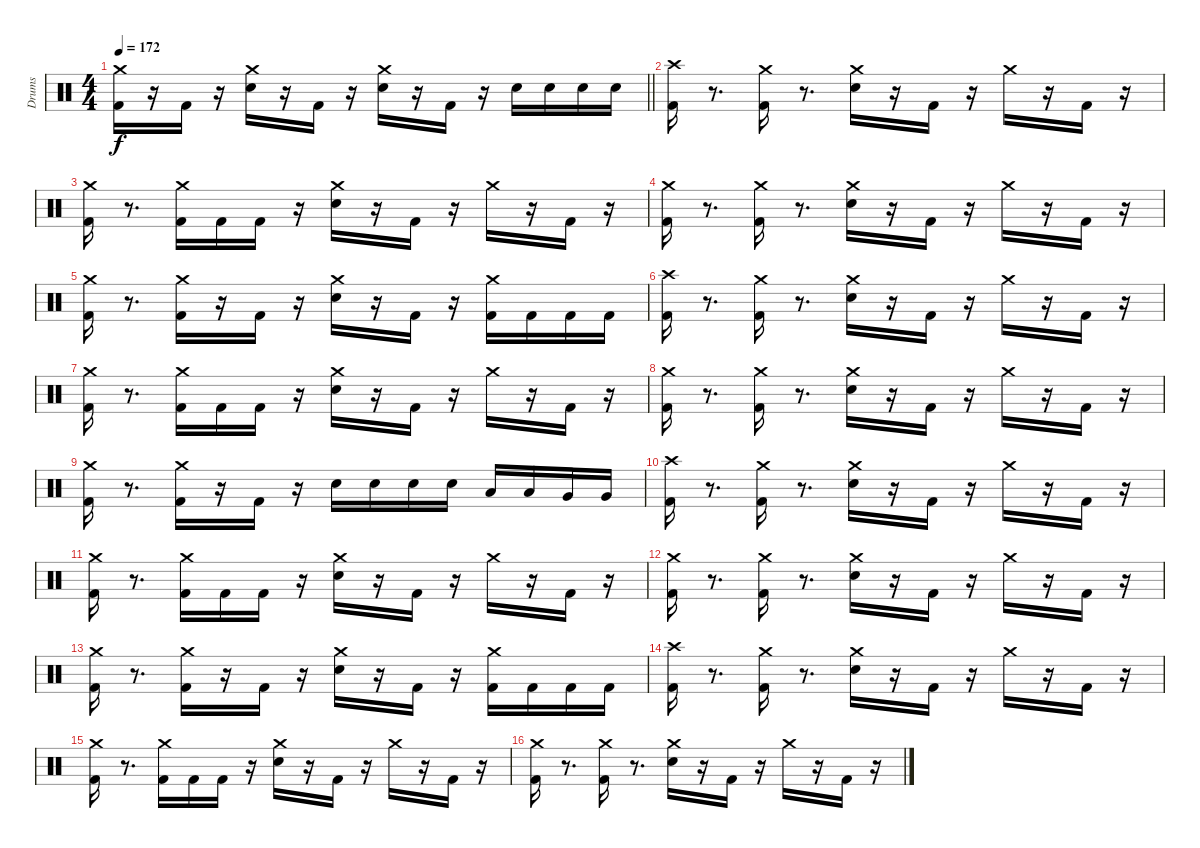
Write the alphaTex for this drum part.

\track ("Drums" "Drums") {instrument percussion}
\staff {score}
\articulation defaults
\ts (4 4)
\tempo 172
\clef neutral
\barLineRight lightlight
\ks c
("Kick (hit) 2" "Crash medium (hit)").16{dy f} r.16 "Kick (hit) 2".16 r.16 ("Snare (hit) 2" "Crash medium (hit)").16 r.16 "Kick (hit) 2".16 r.16 ("Snare (hit) 2" "Crash medium (hit)").16 r.16 "Kick (hit) 2".16 r.16 "Snare (hit) 2".16 "Snare (hit) 2".16 "Snare (hit) 2".16 "Snare (hit) 2".16 |
\section ("" " ")
("Kick (hit) 2" "Crash high (hit)").16 r.8{d} ("Kick (hit) 2" "Crash medium (hit)").16 r.8{d} ("Snare (hit) 2" "Crash medium (hit)").16 r.16 "Kick (hit) 2".16 r.16 "Crash medium (hit)".16 r.16 "Kick (hit) 2".16 r.16 |
("Kick (hit) 2" "Crash medium (hit)").16 r.8{d} ("Kick (hit) 2" "Crash medium (hit)").16 "Kick (hit) 2".16 "Kick (hit) 2".16 r.16 ("Snare (hit) 2" "Crash medium (hit)").16 r.16 "Kick (hit) 2".16 r.16 "Crash medium (hit)".16 r.16 "Kick (hit) 2".16 r.16 |
("Kick (hit) 2" "Crash medium (hit)").16 r.8{d} ("Kick (hit) 2" "Crash medium (hit)").16 r.8{d} ("Snare (hit) 2" "Crash medium (hit)").16 r.16 "Kick (hit) 2".16 r.16 "Crash medium (hit)".16 r.16 "Kick (hit) 2".16 r.16 |
("Kick (hit) 2" "Crash medium (hit)").16 r.8{d} ("Kick (hit) 2" "Crash medium (hit)").16 r.16 "Kick (hit) 2".16 r.16 ("Snare (hit) 2" "Crash medium (hit)").16 r.16 "Kick (hit) 2".16 r.16 ("Kick (hit) 2" "Crash medium (hit)").16 "Kick (hit) 2".16 "Kick (hit) 2".16 "Kick (hit) 2".16 |
("Kick (hit) 2" "Crash high (hit)").16 r.8{d} ("Kick (hit) 2" "Crash medium (hit)").16 r.8{d} ("Snare (hit) 2" "Crash medium (hit)").16 r.16 "Kick (hit) 2".16 r.16 "Crash medium (hit)".16 r.16 "Kick (hit) 2".16 r.16 |
("Kick (hit) 2" "Crash medium (hit)").16 r.8{d} ("Kick (hit) 2" "Crash medium (hit)").16 "Kick (hit) 2".16 "Kick (hit) 2".16 r.16 ("Snare (hit) 2" "Crash medium (hit)").16 r.16 "Kick (hit) 2".16 r.16 "Crash medium (hit)".16 r.16 "Kick (hit) 2".16 r.16 |
("Kick (hit) 2" "Crash medium (hit)").16 r.8{d} ("Kick (hit) 2" "Crash medium (hit)").16 r.8{d} ("Snare (hit) 2" "Crash medium (hit)").16 r.16 "Kick (hit) 2".16 r.16 "Crash medium (hit)".16 r.16 "Kick (hit) 2".16 r.16 |
("Kick (hit) 2" "Crash medium (hit)").16 r.8{d} ("Kick (hit) 2" "Crash medium (hit)").16 r.16 "Kick (hit) 2".16 r.16 "Snare (hit) 2".16 "Snare (hit) 2".16 "Snare (hit) 2".16 "Snare (hit) 2".16 "Low Tom (hit)".16 "Low Tom (hit)".16 "Very Low Tom (hit)".16 "Very Low Tom (hit)".16 |
("Kick (hit) 2" "Crash high (hit)").16 r.8{d} ("Kick (hit) 2" "Crash medium (hit)").16 r.8{d} ("Snare (hit) 2" "Crash medium (hit)").16 r.16 "Kick (hit) 2".16 r.16 "Crash medium (hit)".16 r.16 "Kick (hit) 2".16 r.16 |
("Kick (hit) 2" "Crash medium (hit)").16 r.8{d} ("Kick (hit) 2" "Crash medium (hit)").16 "Kick (hit) 2".16 "Kick (hit) 2".16 r.16 ("Snare (hit) 2" "Crash medium (hit)").16 r.16 "Kick (hit) 2".16 r.16 "Crash medium (hit)".16 r.16 "Kick (hit) 2".16 r.16 |
("Kick (hit) 2" "Crash medium (hit)").16 r.8{d} ("Kick (hit) 2" "Crash medium (hit)").16 r.8{d} ("Snare (hit) 2" "Crash medium (hit)").16 r.16 "Kick (hit) 2".16 r.16 "Crash medium (hit)".16 r.16 "Kick (hit) 2".16 r.16 |
("Kick (hit) 2" "Crash medium (hit)").16 r.8{d} ("Kick (hit) 2" "Crash medium (hit)").16 r.16 "Kick (hit) 2".16 r.16 ("Snare (hit) 2" "Crash medium (hit)").16 r.16 "Kick (hit) 2".16 r.16 ("Kick (hit) 2" "Crash medium (hit)").16 "Kick (hit) 2".16 "Kick (hit) 2".16 "Kick (hit) 2".16 |
("Kick (hit) 2" "Crash high (hit)").16 r.8{d} ("Kick (hit) 2" "Crash medium (hit)").16 r.8{d} ("Snare (hit) 2" "Crash medium (hit)").16 r.16 "Kick (hit) 2".16 r.16 "Crash medium (hit)".16 r.16 "Kick (hit) 2".16 r.16 |
("Kick (hit) 2" "Crash medium (hit)").16 r.8{d} ("Kick (hit) 2" "Crash medium (hit)").16 "Kick (hit) 2".16 "Kick (hit) 2".16 r.16 ("Snare (hit) 2" "Crash medium (hit)").16 r.16 "Kick (hit) 2".16 r.16 "Crash medium (hit)".16 r.16 "Kick (hit) 2".16 r.16 |
("Kick (hit) 2" "Crash medium (hit)").16 r.8{d} ("Kick (hit) 2" "Crash medium (hit)").16 r.8{d} ("Snare (hit) 2" "Crash medium (hit)").16 r.16 "Kick (hit) 2".16 r.16 "Crash medium (hit)".16 r.16 "Kick (hit) 2".16 r.16
